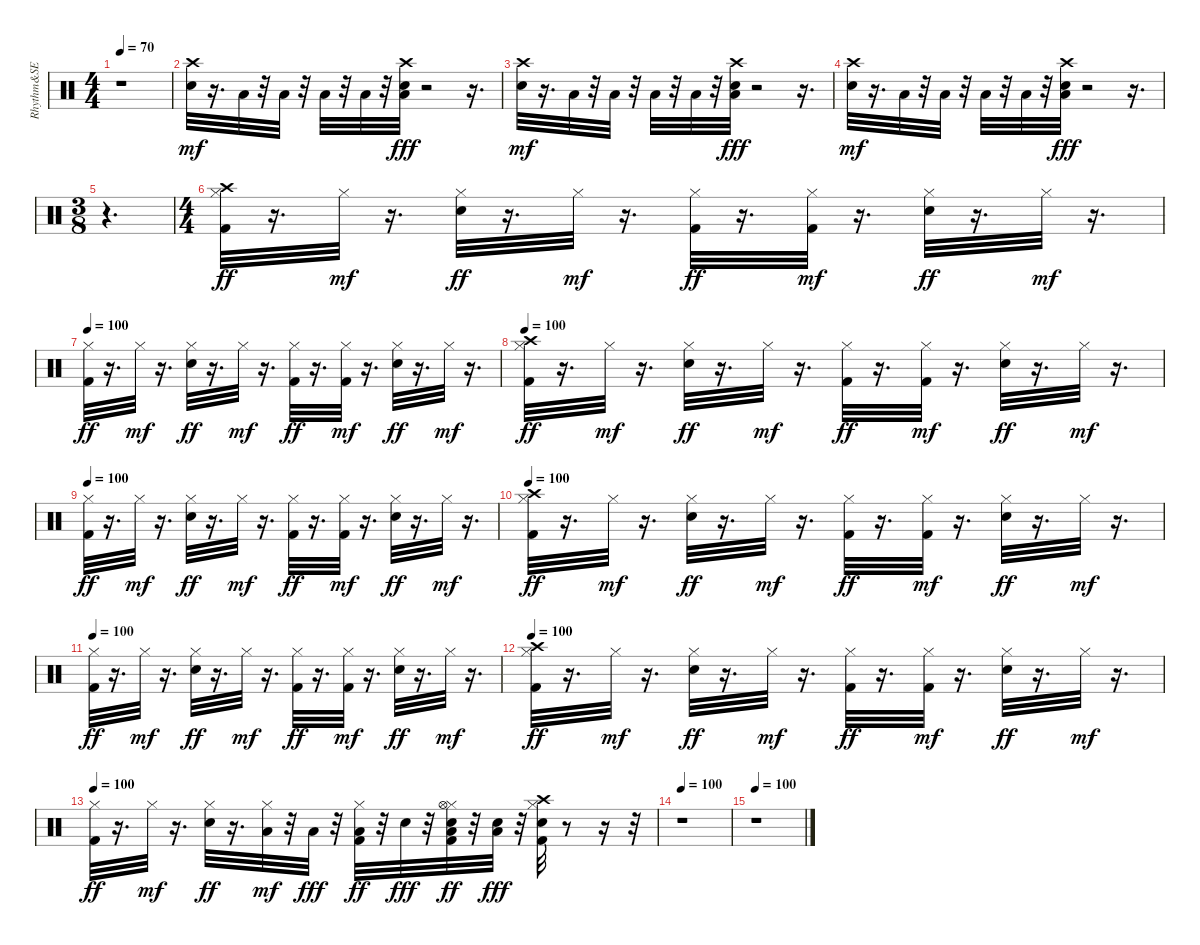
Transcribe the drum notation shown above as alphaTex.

\track ("Rhythm&SE" "Rhythm&SE") {instrument percussion}
\staff {score}
\articulation defaults
\ts (4 4)
\tempo 70
\clef neutral
\ks c
r.1{dy fff} |
("Snare (hit) 2" "Crash high (hit)").32{dy mf} r.16{d} "Low Floor Tom (hit)".32 r.32 "Low Floor Tom (hit)".32 r.32 "Low Tom (hit)".32 r.32 "Low Tom (hit)".32 r.32 ("Snare (hit) 2" "Low Tom (hit)" "Crash high (hit)").32{dy fff} r.2 r.16{d} |
("Snare (hit) 2" "Crash high (hit)").32{dy mf} r.16{d} "Low Floor Tom (hit)".32 r.32 "Low Floor Tom (hit)".32 r.32 "Low Tom (hit)".32 r.32 "Low Tom (hit)".32 r.32 ("Snare (hit) 2" "Low Tom (hit)" "Crash high (hit)").32{dy fff} r.2 r.16{d} |
("Snare (hit) 2" "Crash high (hit)").32{dy mf} r.16{d} "Low Floor Tom (hit)".32 r.32 "Low Floor Tom (hit)".32 r.32 "Low Tom (hit)".32 r.32 "Low Tom (hit)".32 r.32 ("Snare (hit) 2" "Low Tom (hit)" "Crash high (hit)").32{dy fff} r.2 r.16{d} |
\ts (3 8)
r.4{d} |
\ts (4 4)
("Kick (hit) 2" "Hi-Hat (closed)" "Crash high (hit)").32{dy ff volume 14} r.16{d} "Hi-Hat (closed)".32{dy mf volume 14} r.16{d} ("Snare (hit) 2" "Hi-Hat (closed)").32{dy ff} r.16{d} "Hi-Hat (closed)".32{dy mf} r.16{d} ("Kick (hit) 2" "Hi-Hat (closed)").32{dy ff} r.16{d} ("Kick (hit) 2" "Hi-Hat (closed)").32{dy mf} r.16{d} ("Snare (hit) 2" "Hi-Hat (closed)").32{dy ff} r.16{d} "Hi-Hat (closed)".32{dy mf} r.16{d} |
\tempo 100
("Kick (hit) 2" "Hi-Hat (closed)").32{dy ff} r.16{d} "Hi-Hat (closed)".32{dy mf} r.16{d} ("Snare (hit) 2" "Hi-Hat (closed)").32{dy ff} r.16{d} "Hi-Hat (closed)".32{dy mf} r.16{d} ("Kick (hit) 2" "Hi-Hat (closed)").32{dy ff} r.16{d} ("Kick (hit) 2" "Hi-Hat (closed)").32{dy mf} r.16{d} ("Snare (hit) 2" "Hi-Hat (closed)").32{dy ff} r.16{d} "Hi-Hat (closed)".32{dy mf} r.16{d} |
\tempo 100
("Kick (hit) 2" "Hi-Hat (closed)" "Crash high (hit)").32{dy ff} r.16{d} "Hi-Hat (closed)".32{dy mf} r.16{d} ("Snare (hit) 2" "Hi-Hat (closed)").32{dy ff} r.16{d} "Hi-Hat (closed)".32{dy mf} r.16{d} ("Kick (hit) 2" "Hi-Hat (closed)").32{dy ff} r.16{d} ("Kick (hit) 2" "Hi-Hat (closed)").32{dy mf} r.16{d} ("Snare (hit) 2" "Hi-Hat (closed)").32{dy ff} r.16{d} "Hi-Hat (closed)".32{dy mf} r.16{d} |
\tempo 100
("Kick (hit) 2" "Hi-Hat (closed)").32{dy ff} r.16{d} "Hi-Hat (closed)".32{dy mf} r.16{d} ("Snare (hit) 2" "Hi-Hat (closed)").32{dy ff} r.16{d} "Hi-Hat (closed)".32{dy mf} r.16{d} ("Kick (hit) 2" "Hi-Hat (closed)").32{dy ff} r.16{d} ("Kick (hit) 2" "Hi-Hat (closed)").32{dy mf} r.16{d} ("Snare (hit) 2" "Hi-Hat (closed)").32{dy ff} r.16{d} "Hi-Hat (closed)".32{dy mf} r.16{d} |
\tempo 100
("Kick (hit) 2" "Hi-Hat (closed)" "Crash high (hit)").32{dy ff volume 14} r.16{d} "Hi-Hat (closed)".32{dy mf volume 14} r.16{d} ("Snare (hit) 2" "Hi-Hat (closed)").32{dy ff} r.16{d} "Hi-Hat (closed)".32{dy mf} r.16{d} ("Kick (hit) 2" "Hi-Hat (closed)").32{dy ff} r.16{d} ("Kick (hit) 2" "Hi-Hat (closed)").32{dy mf} r.16{d} ("Snare (hit) 2" "Hi-Hat (closed)").32{dy ff} r.16{d} "Hi-Hat (closed)".32{dy mf} r.16{d} |
\tempo 100
("Kick (hit) 2" "Hi-Hat (closed)").32{dy ff} r.16{d} "Hi-Hat (closed)".32{dy mf} r.16{d} ("Snare (hit) 2" "Hi-Hat (closed)").32{dy ff} r.16{d} "Hi-Hat (closed)".32{dy mf} r.16{d} ("Kick (hit) 2" "Hi-Hat (closed)").32{dy ff} r.16{d} ("Kick (hit) 2" "Hi-Hat (closed)").32{dy mf} r.16{d} ("Snare (hit) 2" "Hi-Hat (closed)").32{dy ff} r.16{d} "Hi-Hat (closed)".32{dy mf} r.16{d} |
\tempo 100
("Kick (hit) 2" "Hi-Hat (closed)" "Crash high (hit)").32{dy ff} r.16{d} "Hi-Hat (closed)".32{dy mf} r.16{d} ("Snare (hit) 2" "Hi-Hat (closed)").32{dy ff} r.16{d} "Hi-Hat (closed)".32{dy mf} r.16{d} ("Kick (hit) 2" "Hi-Hat (closed)").32{dy ff} r.16{d} ("Kick (hit) 2" "Hi-Hat (closed)").32{dy mf} r.16{d} ("Snare (hit) 2" "Hi-Hat (closed)").32{dy ff} r.16{d} "Hi-Hat (closed)".32{dy mf} r.16{d} |
\tempo 100
("Kick (hit) 2" "Hi-Hat (closed)").32{dy ff} r.16{d} "Hi-Hat (closed)".32{dy mf} r.16{d} ("Snare (hit) 2" "Hi-Hat (closed)").32{dy ff} r.16{d} ("Low Floor Tom (hit)" "Hi-Hat (closed)").32{dy mf} r.32 "Low Floor Tom (hit)".32{dy fff} r.32 ("Kick (hit) 2" "Low Floor Tom (hit)" "Hi-Hat (closed)").32{dy ff} r.32 "Snare (hit) 2".32{dy fff} r.32 ("Kick (hit) 2" "Hi-Hat (closed)" "Low Tom (hit)" "Snare (hit) 2" "Hi-Hat (open)").32{dy ff} r.32 ("Snare (hit) 2" "Low Tom (hit)").32{dy fff} r.32 ("Snare (hit) 2" "Hi-Hat (closed)" "Kick (hit) 2" "Crash high (hit)").32 r.8 r.16 r.32 |
\tempo 100
r.1 |
\tempo 100
r.1
